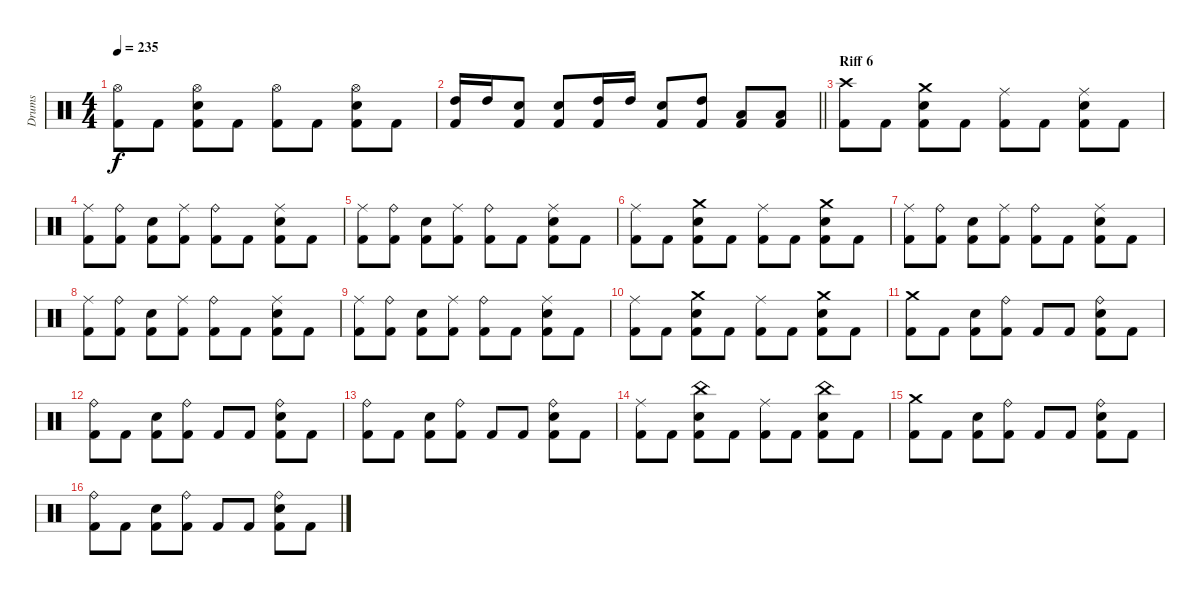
\track ("Drums" "Drums") {instrument percussion}
\staff {score}
\articulation defaults
\ts (4 4)
\tempo 235
\clef neutral
\ks aminor
("Hi-Hat (open)" "Kick (hit) 2").8{dy f} "Kick (hit) 2".8 ("Hi-Hat (open)" "Electric Snare (hit)" "Kick (hit) 2").8 "Kick (hit) 2".8 ("Hi-Hat (open)" "Kick (hit) 2").8 "Kick (hit) 2".8 ("Hi-Hat (open)" "Electric Snare (hit)" "Kick (hit) 2").8 "Kick (hit) 2".8 |
\barLineRight lightlight
("High Tom (hit)" "Kick (hit) 2").16 "High Tom (hit)".16 ("Kick (hit) 2" "Electric Snare (hit)").8 ("Kick (hit) 2" "Electric Snare (hit)").8 ("High Tom (hit)" "Kick (hit) 2").16 "High Tom (hit)".16 ("Kick (hit) 2" "Electric Snare (hit)").8 ("Kick (hit) 2" "High Tom (hit)").8 ("Kick (hit) 2" "Low Tom (hit)").8 ("Kick (hit) 2" "Low Tom (hit)").8 |
\section ("" "Riff 6")
("Kick (hit) 2" "Crash high (hit)").8 "Kick (hit) 2".8 ("Kick (hit) 2" "Crash medium (hit)" "Electric Snare (hit)").8 "Kick (hit) 2".8 ("Kick (hit) 2" "Ride (middle)").8 "Kick (hit) 2".8 ("Kick (hit) 2" "Electric Snare (hit)" "Ride (middle)").8 "Kick (hit) 2".8 |
("Kick (hit) 2" "Ride (middle)").8 ("Kick (hit) 2" "Ride (bell)").8 ("Kick (hit) 2" "Electric Snare (hit)").8 ("Kick (hit) 2" "Ride (middle)").8 ("Kick (hit) 2" "Ride (bell)").8 "Kick (hit) 2".8 ("Kick (hit) 2" "Electric Snare (hit)" "Ride (middle)").8 "Kick (hit) 2".8 |
("Kick (hit) 2" "Ride (middle)").8 ("Kick (hit) 2" "Ride (bell)").8 ("Kick (hit) 2" "Electric Snare (hit)").8 ("Kick (hit) 2" "Ride (middle)").8 ("Kick (hit) 2" "Ride (bell)").8 "Kick (hit) 2".8 ("Kick (hit) 2" "Electric Snare (hit)" "Ride (middle)").8 "Kick (hit) 2".8 |
("Kick (hit) 2" "Ride (middle)").8 "Kick (hit) 2".8 ("Kick (hit) 2" "Crash medium (hit)" "Electric Snare (hit)").8 "Kick (hit) 2".8 ("Kick (hit) 2" "Ride (middle)").8 "Kick (hit) 2".8 ("Kick (hit) 2" "Electric Snare (hit)" "Crash medium (hit)").8 "Kick (hit) 2".8 |
("Kick (hit) 2" "Ride (middle)").8 ("Kick (hit) 2" "Ride (bell)").8 ("Kick (hit) 2" "Electric Snare (hit)").8 ("Kick (hit) 2" "Ride (middle)").8 ("Kick (hit) 2" "Ride (bell)").8 "Kick (hit) 2".8 ("Kick (hit) 2" "Electric Snare (hit)" "Ride (middle)").8 "Kick (hit) 2".8 |
("Kick (hit) 2" "Ride (middle)").8 ("Kick (hit) 2" "Ride (bell)").8 ("Kick (hit) 2" "Electric Snare (hit)").8 ("Kick (hit) 2" "Ride (middle)").8 ("Kick (hit) 2" "Ride (bell)").8 "Kick (hit) 2".8 ("Kick (hit) 2" "Electric Snare (hit)" "Ride (middle)").8 "Kick (hit) 2".8 |
("Kick (hit) 2" "Ride (middle)").8 ("Kick (hit) 2" "Ride (bell)").8 ("Kick (hit) 2" "Electric Snare (hit)").8 ("Kick (hit) 2" "Ride (middle)").8 ("Kick (hit) 2" "Ride (bell)").8 "Kick (hit) 2".8 ("Kick (hit) 2" "Electric Snare (hit)" "Ride (middle)").8 "Kick (hit) 2".8 |
("Kick (hit) 2" "Ride (middle)").8 "Kick (hit) 2".8 ("Kick (hit) 2" "Crash medium (hit)" "Electric Snare (hit)").8 "Kick (hit) 2".8 ("Kick (hit) 2" "Ride (middle)").8 "Kick (hit) 2".8 ("Kick (hit) 2" "Electric Snare (hit)" "Crash medium (hit)").8 "Kick (hit) 2".8 |
("Crash medium (hit)" "Kick (hit) 2").8 "Kick (hit) 2".8 ("Electric Snare (hit)" "Kick (hit) 2").8 ("Ride (bell)" "Kick (hit) 2").8 "Kick (hit) 2".8 "Kick (hit) 2".8 ("Electric Snare (hit)" "Ride (bell)" "Kick (hit) 2").8 "Kick (hit) 2".8 |
("Ride (bell)" "Kick (hit) 2").8 "Kick (hit) 2".8 ("Electric Snare (hit)" "Kick (hit) 2").8 ("Ride (bell)" "Kick (hit) 2").8 "Kick (hit) 2".8 "Kick (hit) 2".8 ("Electric Snare (hit)" "Ride (bell)" "Kick (hit) 2").8 "Kick (hit) 2".8 |
("Ride (bell)" "Kick (hit) 2").8 "Kick (hit) 2".8 ("Electric Snare (hit)" "Kick (hit) 2").8 ("Ride (bell)" "Kick (hit) 2").8 "Kick (hit) 2".8 "Kick (hit) 2".8 ("Electric Snare (hit)" "Ride (bell)" "Kick (hit) 2").8 "Kick (hit) 2".8 |
("Ride (middle)" "Kick (hit) 2").8 "Kick (hit) 2".8 ("Electric Snare (hit)" "China (hit)" "Kick (hit) 2").8 "Kick (hit) 2".8 ("Ride (middle)" "Kick (hit) 2").8 "Kick (hit) 2".8 ("Electric Snare (hit)" "China (hit)" "Kick (hit) 2").8 "Kick (hit) 2".8 |
("Crash medium (hit)" "Kick (hit) 2").8 "Kick (hit) 2".8 ("Electric Snare (hit)" "Kick (hit) 2").8 ("Ride (bell)" "Kick (hit) 2").8 "Kick (hit) 2".8 "Kick (hit) 2".8 ("Electric Snare (hit)" "Ride (bell)" "Kick (hit) 2").8 "Kick (hit) 2".8 |
("Ride (bell)" "Kick (hit) 2").8 "Kick (hit) 2".8 ("Electric Snare (hit)" "Kick (hit) 2").8 ("Ride (bell)" "Kick (hit) 2").8 "Kick (hit) 2".8 "Kick (hit) 2".8 ("Electric Snare (hit)" "Ride (bell)" "Kick (hit) 2").8 "Kick (hit) 2".8
